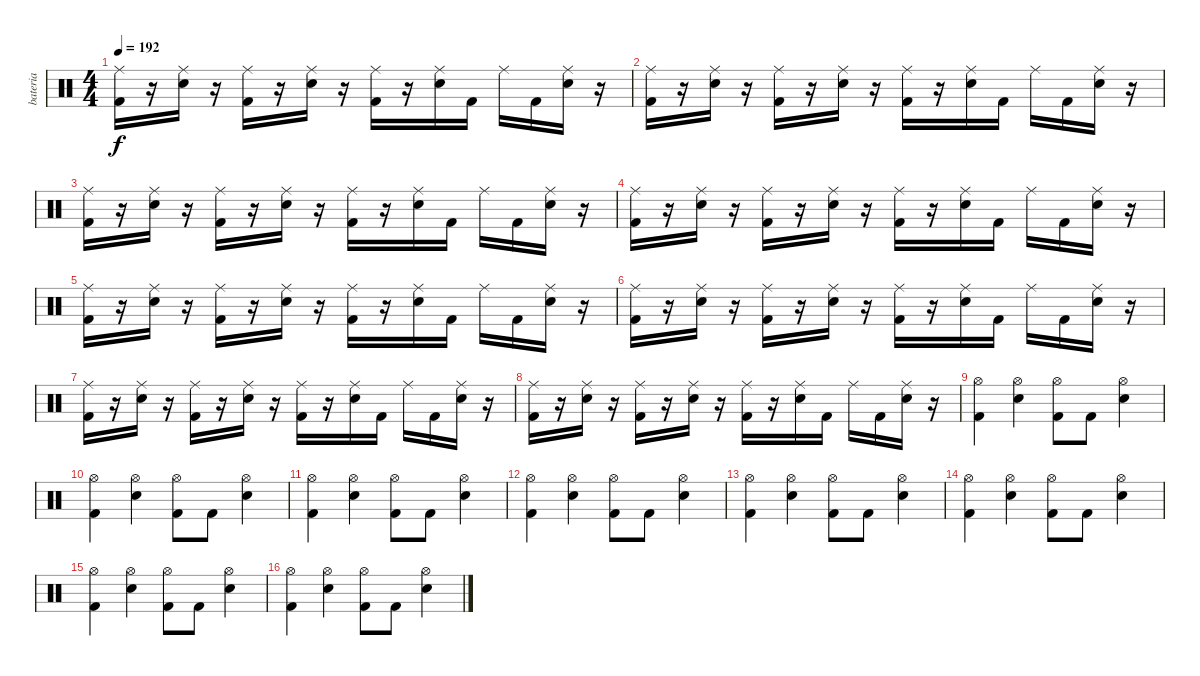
\track ("bateria" "bateria") {instrument percussion}
\staff {score}
\articulation defaults
\ts (4 4)
\tempo 192
\clef neutral
\ks c
("Ride (middle)" "Kick (hit) 2").16{dy f} r.16 ("Ride (middle)" "Snare (hit) 2").16 r.16 ("Ride (middle)" "Kick (hit) 2").16 r.16 ("Ride (middle)" "Snare (hit) 2").16 r.16 ("Ride (middle)" "Kick (hit) 2").16 r.16 ("Ride (middle)" "Snare (hit) 2").16 "Kick (hit) 2".16 "Ride (middle)".16 "Kick (hit) 2".16 ("Ride (middle)" "Snare (hit) 2").16 r.16 |
("Ride (middle)" "Kick (hit) 2").16 r.16 ("Ride (middle)" "Snare (hit) 2").16 r.16 ("Ride (middle)" "Kick (hit) 2").16 r.16 ("Ride (middle)" "Snare (hit) 2").16 r.16 ("Ride (middle)" "Kick (hit) 2").16 r.16 ("Ride (middle)" "Snare (hit) 2").16 "Kick (hit) 2".16 "Ride (middle)".16 "Kick (hit) 2".16 ("Ride (middle)" "Snare (hit) 2").16 r.16 |
("Ride (middle)" "Kick (hit) 2").16 r.16 ("Ride (middle)" "Snare (hit) 2").16 r.16 ("Ride (middle)" "Kick (hit) 2").16 r.16 ("Ride (middle)" "Snare (hit) 2").16 r.16 ("Ride (middle)" "Kick (hit) 2").16 r.16 ("Ride (middle)" "Snare (hit) 2").16 "Kick (hit) 2".16 "Ride (middle)".16 "Kick (hit) 2".16 ("Ride (middle)" "Snare (hit) 2").16 r.16 |
("Ride (middle)" "Kick (hit) 2").16 r.16 ("Ride (middle)" "Snare (hit) 2").16 r.16 ("Ride (middle)" "Kick (hit) 2").16 r.16 ("Ride (middle)" "Snare (hit) 2").16 r.16 ("Ride (middle)" "Kick (hit) 2").16 r.16 ("Ride (middle)" "Snare (hit) 2").16 "Kick (hit) 2".16 "Ride (middle)".16 "Kick (hit) 2".16 ("Ride (middle)" "Snare (hit) 2").16 r.16 |
("Ride (middle)" "Kick (hit) 2").16 r.16 ("Ride (middle)" "Snare (hit) 2").16 r.16 ("Ride (middle)" "Kick (hit) 2").16 r.16 ("Ride (middle)" "Snare (hit) 2").16 r.16 ("Ride (middle)" "Kick (hit) 2").16 r.16 ("Ride (middle)" "Snare (hit) 2").16 "Kick (hit) 2".16 "Ride (middle)".16 "Kick (hit) 2".16 ("Ride (middle)" "Snare (hit) 2").16 r.16 |
("Ride (middle)" "Kick (hit) 2").16 r.16 ("Ride (middle)" "Snare (hit) 2").16 r.16 ("Ride (middle)" "Kick (hit) 2").16 r.16 ("Ride (middle)" "Snare (hit) 2").16 r.16 ("Ride (middle)" "Kick (hit) 2").16 r.16 ("Ride (middle)" "Snare (hit) 2").16 "Kick (hit) 2".16 "Ride (middle)".16 "Kick (hit) 2".16 ("Ride (middle)" "Snare (hit) 2").16 r.16 |
("Ride (middle)" "Kick (hit) 2").16 r.16 ("Ride (middle)" "Snare (hit) 2").16 r.16 ("Ride (middle)" "Kick (hit) 2").16 r.16 ("Ride (middle)" "Snare (hit) 2").16 r.16 ("Ride (middle)" "Kick (hit) 2").16 r.16 ("Ride (middle)" "Snare (hit) 2").16 "Kick (hit) 2".16 "Ride (middle)".16 "Kick (hit) 2".16 ("Ride (middle)" "Snare (hit) 2").16 r.16 |
("Ride (middle)" "Kick (hit) 2").16 r.16 ("Ride (middle)" "Snare (hit) 2").16 r.16 ("Ride (middle)" "Kick (hit) 2").16 r.16 ("Ride (middle)" "Snare (hit) 2").16 r.16 ("Ride (middle)" "Kick (hit) 2").16 r.16 ("Ride (middle)" "Snare (hit) 2").16 "Kick (hit) 2".16 "Ride (middle)".16 "Kick (hit) 2".16 ("Ride (middle)" "Snare (hit) 2").16 r.16 |
("Hi-Hat (open)" "Kick (hit) 2").4 ("Hi-Hat (open)" "Snare (hit) 2").4 ("Hi-Hat (open)" "Kick (hit) 2").8 "Kick (hit) 2".8 ("Hi-Hat (open)" "Snare (hit) 2").4 |
("Hi-Hat (open)" "Kick (hit) 2").4 ("Hi-Hat (open)" "Snare (hit) 2").4 ("Hi-Hat (open)" "Kick (hit) 2").8 "Kick (hit) 2".8 ("Hi-Hat (open)" "Snare (hit) 2").4 |
("Hi-Hat (open)" "Kick (hit) 2").4 ("Hi-Hat (open)" "Snare (hit) 2").4 ("Hi-Hat (open)" "Kick (hit) 2").8 "Kick (hit) 2".8 ("Hi-Hat (open)" "Snare (hit) 2").4 |
("Hi-Hat (open)" "Kick (hit) 2").4 ("Hi-Hat (open)" "Snare (hit) 2").4 ("Hi-Hat (open)" "Kick (hit) 2").8 "Kick (hit) 2".8 ("Hi-Hat (open)" "Snare (hit) 2").4 |
("Hi-Hat (open)" "Kick (hit) 2").4 ("Hi-Hat (open)" "Snare (hit) 2").4 ("Hi-Hat (open)" "Kick (hit) 2").8 "Kick (hit) 2".8 ("Hi-Hat (open)" "Snare (hit) 2").4 |
("Hi-Hat (open)" "Kick (hit) 2").4 ("Hi-Hat (open)" "Snare (hit) 2").4 ("Hi-Hat (open)" "Kick (hit) 2").8 "Kick (hit) 2".8 ("Hi-Hat (open)" "Snare (hit) 2").4 |
("Hi-Hat (open)" "Kick (hit) 2").4 ("Hi-Hat (open)" "Snare (hit) 2").4 ("Hi-Hat (open)" "Kick (hit) 2").8 "Kick (hit) 2".8 ("Hi-Hat (open)" "Snare (hit) 2").4 |
("Hi-Hat (open)" "Kick (hit) 2").4 ("Hi-Hat (open)" "Snare (hit) 2").4 ("Hi-Hat (open)" "Kick (hit) 2").8 "Kick (hit) 2".8 ("Hi-Hat (open)" "Snare (hit) 2").4
